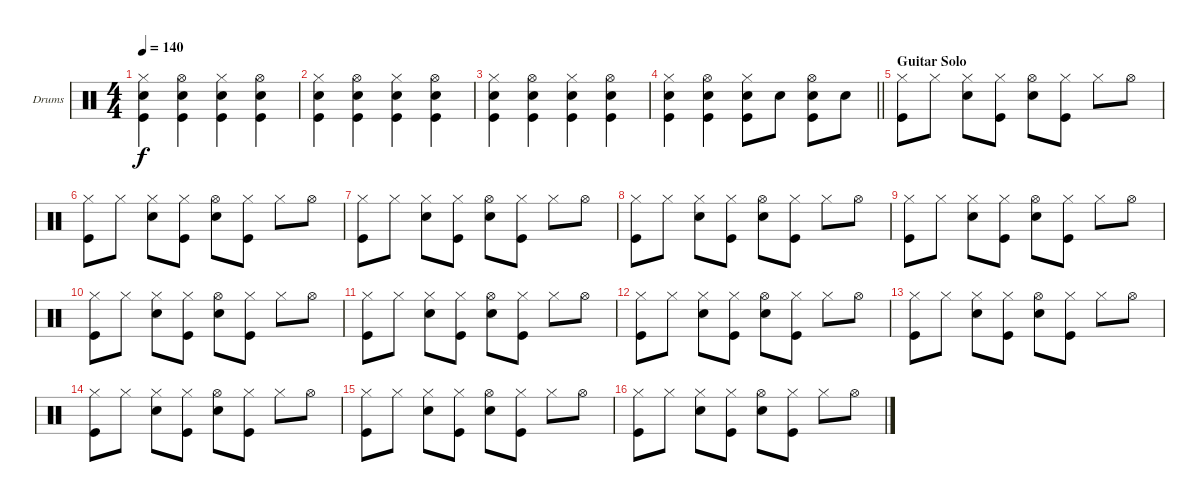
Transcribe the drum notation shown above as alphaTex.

\bracketExtendMode groupsimilarinstruments
\firstSystemTrackNameOrientation horizontal
\otherSystemsTrackNameOrientation horizontal
\track ("Drumkit" "Drums") {instrument percussion}
\staff {score}
\articulation defaults
\ts (4 4)
\tempo 140
\clef neutral
\ks c
("Hi-Hat (closed)" "Snare (hit) 2" "Kick (hit)").4{dy f} ("Hi-Hat (open)" "Snare (hit) 2" "Kick (hit)").4 ("Hi-Hat (closed)" "Snare (hit) 2" "Kick (hit)").4 ("Hi-Hat (open)" "Snare (hit) 2" "Kick (hit)").4 |
("Hi-Hat (closed)" "Snare (hit) 2" "Kick (hit)").4 ("Hi-Hat (open)" "Snare (hit) 2" "Kick (hit)").4 ("Hi-Hat (closed)" "Snare (hit) 2" "Kick (hit)").4 ("Hi-Hat (open)" "Snare (hit) 2" "Kick (hit)").4 |
("Hi-Hat (closed)" "Snare (hit) 2" "Kick (hit)").4 ("Hi-Hat (open)" "Snare (hit) 2" "Kick (hit)").4 ("Hi-Hat (closed)" "Snare (hit) 2" "Kick (hit)").4 ("Hi-Hat (open)" "Snare (hit) 2" "Kick (hit)").4 |
\barLineRight lightlight
("Hi-Hat (closed)" "Snare (hit) 2" "Kick (hit)").4 ("Hi-Hat (open)" "Snare (hit) 2" "Kick (hit)").4 ("Hi-Hat (closed)" "Snare (hit) 2" "Kick (hit)").8 "Snare (hit) 2".8 ("Hi-Hat (open)" "Snare (hit) 2" "Kick (hit)").8 "Snare (hit) 2".8 |
\section ("" "Guitar Solo")
("Hi-Hat (closed)" "Kick (hit)").8 "Hi-Hat (closed)".8 ("Hi-Hat (closed)" "Snare (hit) 2").8 ("Hi-Hat (closed)" "Kick (hit)").8 ("Hi-Hat (open)" "Snare (hit) 2").8 ("Hi-Hat (closed)" "Kick (hit)").8 "Hi-Hat (closed)".8 "Hi-Hat (open)".8 |
("Hi-Hat (closed)" "Kick (hit)").8 "Hi-Hat (closed)".8 ("Hi-Hat (closed)" "Snare (hit) 2").8 ("Hi-Hat (closed)" "Kick (hit)").8 ("Hi-Hat (open)" "Snare (hit) 2").8 ("Hi-Hat (closed)" "Kick (hit)").8 "Hi-Hat (closed)".8 "Hi-Hat (open)".8 |
("Hi-Hat (closed)" "Kick (hit)").8 "Hi-Hat (closed)".8 ("Hi-Hat (closed)" "Snare (hit) 2").8 ("Hi-Hat (closed)" "Kick (hit)").8 ("Hi-Hat (open)" "Snare (hit) 2").8 ("Hi-Hat (closed)" "Kick (hit)").8 "Hi-Hat (closed)".8 "Hi-Hat (open)".8 |
("Hi-Hat (closed)" "Kick (hit)").8 "Hi-Hat (closed)".8 ("Hi-Hat (closed)" "Snare (hit) 2").8 ("Hi-Hat (closed)" "Kick (hit)").8 ("Hi-Hat (open)" "Snare (hit) 2").8 ("Hi-Hat (closed)" "Kick (hit)").8 "Hi-Hat (closed)".8 "Hi-Hat (open)".8 |
("Hi-Hat (closed)" "Kick (hit)").8 "Hi-Hat (closed)".8 ("Hi-Hat (closed)" "Snare (hit) 2").8 ("Hi-Hat (closed)" "Kick (hit)").8 ("Hi-Hat (open)" "Snare (hit) 2").8 ("Hi-Hat (closed)" "Kick (hit)").8 "Hi-Hat (closed)".8 "Hi-Hat (open)".8 |
("Hi-Hat (closed)" "Kick (hit)").8 "Hi-Hat (closed)".8 ("Hi-Hat (closed)" "Snare (hit) 2").8 ("Hi-Hat (closed)" "Kick (hit)").8 ("Hi-Hat (open)" "Snare (hit) 2").8 ("Hi-Hat (closed)" "Kick (hit)").8 "Hi-Hat (closed)".8 "Hi-Hat (open)".8 |
("Hi-Hat (closed)" "Kick (hit)").8 "Hi-Hat (closed)".8 ("Hi-Hat (closed)" "Snare (hit) 2").8 ("Hi-Hat (closed)" "Kick (hit)").8 ("Hi-Hat (open)" "Snare (hit) 2").8 ("Hi-Hat (closed)" "Kick (hit)").8 "Hi-Hat (closed)".8 "Hi-Hat (open)".8 |
("Hi-Hat (closed)" "Kick (hit)").8 "Hi-Hat (closed)".8 ("Hi-Hat (closed)" "Snare (hit) 2").8 ("Hi-Hat (closed)" "Kick (hit)").8 ("Hi-Hat (open)" "Snare (hit) 2").8 ("Hi-Hat (closed)" "Kick (hit)").8 "Hi-Hat (closed)".8 "Hi-Hat (open)".8 |
("Hi-Hat (closed)" "Kick (hit)").8 "Hi-Hat (closed)".8 ("Hi-Hat (closed)" "Snare (hit) 2").8 ("Hi-Hat (closed)" "Kick (hit)").8 ("Hi-Hat (open)" "Snare (hit) 2").8 ("Hi-Hat (closed)" "Kick (hit)").8 "Hi-Hat (closed)".8 "Hi-Hat (open)".8 |
("Hi-Hat (closed)" "Kick (hit)").8 "Hi-Hat (closed)".8 ("Hi-Hat (closed)" "Snare (hit) 2").8 ("Hi-Hat (closed)" "Kick (hit)").8 ("Hi-Hat (open)" "Snare (hit) 2").8 ("Hi-Hat (closed)" "Kick (hit)").8 "Hi-Hat (closed)".8 "Hi-Hat (open)".8 |
("Hi-Hat (closed)" "Kick (hit)").8 "Hi-Hat (closed)".8 ("Hi-Hat (closed)" "Snare (hit) 2").8 ("Hi-Hat (closed)" "Kick (hit)").8 ("Hi-Hat (open)" "Snare (hit) 2").8 ("Hi-Hat (closed)" "Kick (hit)").8 "Hi-Hat (closed)".8 "Hi-Hat (open)".8 |
("Hi-Hat (closed)" "Kick (hit)").8 "Hi-Hat (closed)".8 ("Hi-Hat (closed)" "Snare (hit) 2").8 ("Hi-Hat (closed)" "Kick (hit)").8 ("Hi-Hat (open)" "Snare (hit) 2").8 ("Hi-Hat (closed)" "Kick (hit)").8 "Hi-Hat (closed)".8 "Hi-Hat (open)".8
